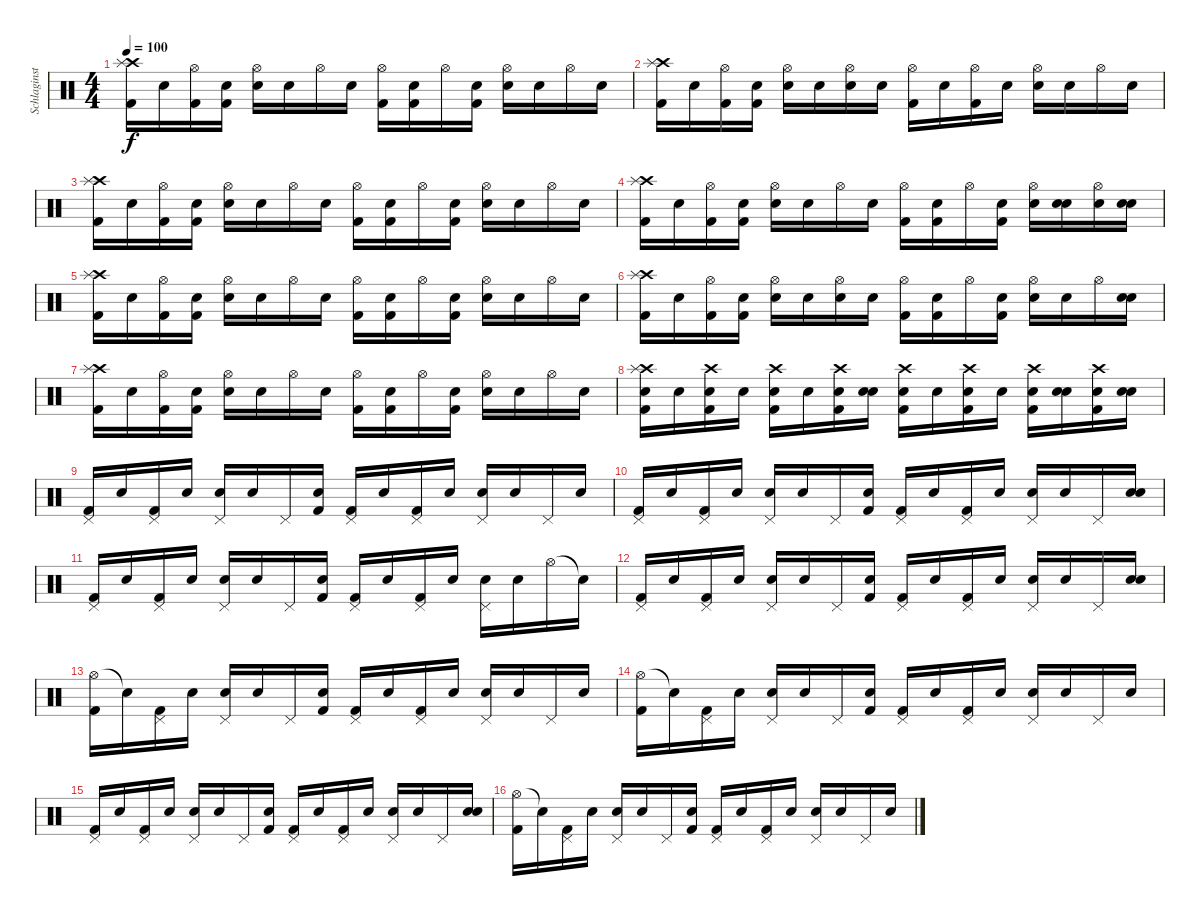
\track ("Schlaginstrumente - Auswahl" "Schlaginst") {instrument percussion}
\staff {score}
\articulation defaults
\ts (4 4)
\tempo 100
\clef neutral
\ks c
("Crash high (hit)" "Splash (hit)" "Kick (hit) 2").16{dy f} "Snare (hit)"{x}.16 ("Hi-Hat (open)" "Kick (hit) 2").16 ("Snare (hit)"{x} "Kick (hit) 2").16 ("Hi-Hat (open)" "Electric Snare (hit)").16 "Snare (hit)"{x}.16 "Hi-Hat (open)".16 "Snare (hit)"{x}.16 ("Hi-Hat (open)" "Kick (hit) 2").16 ("Snare (hit)"{x} "Kick (hit) 2").16 "Hi-Hat (open)".16 ("Snare (hit)"{x} "Kick (hit) 2").16 ("Hi-Hat (open)" "Electric Snare (hit)").16 "Snare (hit)"{x}.16 "Hi-Hat (open)".16 "Snare (hit)"{x}.16 |
("Crash high (hit)" "Splash (hit)" "Kick (hit) 2").16 "Snare (hit)"{x}.16 ("Hi-Hat (open)" "Kick (hit) 2").16 ("Snare (hit)"{x} "Kick (hit) 2").16 ("Hi-Hat (open)" "Electric Snare (hit)").16 "Snare (hit)"{x}.16 ("Hi-Hat (open)" "Electric Snare (hit)").16 "Snare (hit)"{x}.16 ("Hi-Hat (open)" "Kick (hit) 2").16 "Snare (hit)"{x}.16 ("Hi-Hat (open)" "Kick (hit) 2").16 "Snare (hit)"{x}.16 ("Hi-Hat (open)" "Electric Snare (hit)").16 "Snare (hit)"{x}.16 "Hi-Hat (open)".16 "Snare (hit)"{x}.16 |
("Crash high (hit)" "Splash (hit)" "Kick (hit) 2").16 "Snare (hit)"{x}.16 ("Hi-Hat (open)" "Kick (hit) 2").16 ("Snare (hit)"{x} "Kick (hit) 2").16 ("Hi-Hat (open)" "Electric Snare (hit)").16 "Snare (hit)"{x}.16 "Hi-Hat (open)".16 "Snare (hit)"{x}.16 ("Hi-Hat (open)" "Kick (hit) 2").16 ("Snare (hit)"{x} "Kick (hit) 2").16 "Hi-Hat (open)".16 ("Snare (hit)"{x} "Kick (hit) 2").16 ("Hi-Hat (open)" "Electric Snare (hit)").16 "Snare (hit)"{x}.16 "Hi-Hat (open)".16 "Snare (hit)"{x}.16 |
("Crash high (hit)" "Splash (hit)" "Kick (hit) 2").16 "Snare (hit)"{x}.16 ("Hi-Hat (open)" "Kick (hit) 2").16 ("Snare (hit)"{x} "Kick (hit) 2").16 ("Hi-Hat (open)" "Electric Snare (hit)").16 "Snare (hit)"{x}.16 "Hi-Hat (open)".16 "Snare (hit)"{x}.16 ("Hi-Hat (open)" "Kick (hit) 2").16 ("Snare (hit)"{x} "Kick (hit) 2").16 "Hi-Hat (open)".16 ("Snare (hit)"{x} "Kick (hit) 2").16 ("Hi-Hat (open)" "Electric Snare (hit)").16 ("Snare (hit)"{x} "Electric Snare (hit)").16 ("Hi-Hat (open)" "Electric Snare (hit)").16 ("Snare (hit)"{x} "Electric Snare (hit)").16 |
("Crash high (hit)" "Splash (hit)" "Kick (hit) 2").16 "Snare (hit)"{x}.16 ("Hi-Hat (open)" "Kick (hit) 2").16 ("Snare (hit)"{x} "Kick (hit) 2").16 ("Hi-Hat (open)" "Electric Snare (hit)").16 "Snare (hit)"{x}.16 "Hi-Hat (open)".16 "Snare (hit)"{x}.16 ("Hi-Hat (open)" "Kick (hit) 2").16 ("Snare (hit)"{x} "Kick (hit) 2").16 "Hi-Hat (open)".16 ("Snare (hit)"{x} "Kick (hit) 2").16 ("Hi-Hat (open)" "Electric Snare (hit)").16 "Snare (hit)"{x}.16 "Hi-Hat (open)".16 "Snare (hit)"{x}.16 |
("Crash high (hit)" "Splash (hit)" "Kick (hit) 2").16 "Snare (hit)"{x}.16 ("Hi-Hat (open)" "Kick (hit) 2").16 ("Snare (hit)"{x} "Kick (hit) 2").16 ("Hi-Hat (open)" "Electric Snare (hit)").16 "Snare (hit)"{x}.16 ("Hi-Hat (open)" "Electric Snare (hit)").16 "Snare (hit)"{x}.16 ("Hi-Hat (open)" "Kick (hit) 2").16 ("Snare (hit)"{x} "Kick (hit) 2").16 "Hi-Hat (open)".16 ("Snare (hit)"{x} "Kick (hit) 2").16 ("Hi-Hat (open)" "Electric Snare (hit)").16 "Snare (hit)"{x}.16 "Hi-Hat (open)".16 ("Snare (hit)"{x} "Electric Snare (hit)").16 |
("Crash high (hit)" "Splash (hit)" "Kick (hit) 2").16 "Snare (hit)"{x}.16 ("Hi-Hat (open)" "Kick (hit) 2").16 ("Snare (hit)"{x} "Kick (hit) 2").16 ("Hi-Hat (open)" "Electric Snare (hit)").16 "Snare (hit)"{x}.16 "Hi-Hat (open)".16 "Snare (hit)"{x}.16 ("Hi-Hat (open)" "Kick (hit) 2").16 ("Snare (hit)"{x} "Kick (hit) 2").16 "Hi-Hat (open)".16 ("Snare (hit)"{x} "Kick (hit) 2").16 ("Hi-Hat (open)" "Electric Snare (hit)").16 "Snare (hit)"{x}.16 "Hi-Hat (open)".16 "Snare (hit)"{x}.16 |
("Crash high (hit)" "Splash (hit)" "Electric Snare (hit)" "Kick (hit) 2").16 "Snare (hit)"{x}.16 ("Crash high (hit)" "Electric Snare (hit)" "Kick (hit) 2").16 "Snare (hit)"{x}.16 ("Crash high (hit)" "Electric Snare (hit)" "Kick (hit) 2").16 "Snare (hit)"{x}.16 ("Crash high (hit)" "Electric Snare (hit)" "Kick (hit) 2").16 ("Snare (hit)"{x} "Electric Snare (hit)").16 ("Crash high (hit)" "Electric Snare (hit)" "Kick (hit) 2").16 "Snare (hit)"{x}.16 ("Crash high (hit)" "Electric Snare (hit)" "Kick (hit) 2").16 "Snare (hit)"{x}.16 ("Crash high (hit)" "Electric Snare (hit)" "Kick (hit) 2").16 ("Snare (hit)"{x} "Electric Snare (hit)").16 ("Crash high (hit)" "Electric Snare (hit)" "Kick (hit) 2").16 ("Snare (hit)"{x} "Electric Snare (hit)").16 |
("Pedal Hi-Hat (hit)" "Kick (hit) 2").16 "Snare (hit)"{x}.16 ("Pedal Hi-Hat (hit)" "Kick (hit) 2").16 "Snare (hit)"{x}.16 ("Pedal Hi-Hat (hit)" "Electric Snare (hit)").16 "Snare (hit)"{x}.16 "Pedal Hi-Hat (hit)".16 ("Snare (hit)"{x} "Kick (hit) 2").16 ("Pedal Hi-Hat (hit)" "Kick (hit) 2").16 "Snare (hit)"{x}.16 ("Pedal Hi-Hat (hit)" "Kick (hit) 2").16 "Snare (hit)"{x}.16 ("Pedal Hi-Hat (hit)" "Electric Snare (hit)").16 "Snare (hit)"{x}.16 "Pedal Hi-Hat (hit)".16 "Snare (hit)"{x}.16 |
("Pedal Hi-Hat (hit)" "Kick (hit) 2").16 "Snare (hit)"{x}.16 ("Pedal Hi-Hat (hit)" "Kick (hit) 2").16 "Snare (hit)"{x}.16 ("Pedal Hi-Hat (hit)" "Electric Snare (hit)").16 "Snare (hit)"{x}.16 "Pedal Hi-Hat (hit)".16 ("Snare (hit)"{x} "Kick (hit) 2").16 ("Pedal Hi-Hat (hit)" "Kick (hit) 2").16 "Snare (hit)"{x}.16 ("Pedal Hi-Hat (hit)" "Kick (hit) 2").16 "Snare (hit)"{x}.16 ("Pedal Hi-Hat (hit)" "Electric Snare (hit)").16 "Snare (hit)"{x}.16 "Pedal Hi-Hat (hit)".16 ("Snare (hit)"{x} "Electric Snare (hit)").16 |
("Pedal Hi-Hat (hit)" "Kick (hit) 2").16 "Snare (hit)"{x}.16 ("Pedal Hi-Hat (hit)" "Kick (hit) 2").16 "Snare (hit)"{x}.16 ("Pedal Hi-Hat (hit)" "Electric Snare (hit)").16 "Snare (hit)"{x}.16 "Pedal Hi-Hat (hit)".16 ("Snare (hit)"{x} "Kick (hit) 2").16 ("Pedal Hi-Hat (hit)" "Kick (hit) 2").16 "Snare (hit)"{x}.16 ("Pedal Hi-Hat (hit)" "Kick (hit) 2").16 "Snare (hit)"{x}.16 ("Pedal Hi-Hat (hit)" "Electric Snare (hit)").16 "Snare (hit)"{x}.16 "Hi-Hat (open)".16 "Snare (hit)"{t}.16 |
("Pedal Hi-Hat (hit)" "Kick (hit) 2").16 "Snare (hit)"{x}.16 ("Pedal Hi-Hat (hit)" "Kick (hit) 2").16 "Snare (hit)"{x}.16 ("Pedal Hi-Hat (hit)" "Electric Snare (hit)").16 "Snare (hit)"{x}.16 "Pedal Hi-Hat (hit)".16 ("Snare (hit)"{x} "Kick (hit) 2").16 ("Pedal Hi-Hat (hit)" "Kick (hit) 2").16 "Snare (hit)"{x}.16 ("Pedal Hi-Hat (hit)" "Kick (hit) 2").16 "Snare (hit)"{x}.16 ("Pedal Hi-Hat (hit)" "Electric Snare (hit)").16 "Snare (hit)"{x}.16 "Pedal Hi-Hat (hit)".16 ("Snare (hit)"{x} "Electric Snare (hit)").16 |
("Hi-Hat (open)" "Kick (hit) 2").16 "Snare (hit)"{t}.16 ("Pedal Hi-Hat (hit)" "Kick (hit) 2").16 "Snare (hit)"{x}.16 ("Pedal Hi-Hat (hit)" "Electric Snare (hit)").16 "Snare (hit)"{x}.16 "Pedal Hi-Hat (hit)".16 ("Snare (hit)"{x} "Kick (hit) 2").16 ("Pedal Hi-Hat (hit)" "Kick (hit) 2").16 "Snare (hit)"{x}.16 ("Pedal Hi-Hat (hit)" "Kick (hit) 2").16 "Snare (hit)"{x}.16 ("Pedal Hi-Hat (hit)" "Electric Snare (hit)").16 "Snare (hit)"{x}.16 "Pedal Hi-Hat (hit)".16 "Snare (hit)"{x}.16 |
("Hi-Hat (open)" "Kick (hit) 2").16 "Snare (hit)"{t}.16 ("Pedal Hi-Hat (hit)" "Kick (hit) 2").16 "Snare (hit)"{x}.16 ("Pedal Hi-Hat (hit)" "Electric Snare (hit)").16 "Snare (hit)"{x}.16 "Pedal Hi-Hat (hit)".16 ("Snare (hit)"{x} "Kick (hit) 2").16 ("Pedal Hi-Hat (hit)" "Kick (hit) 2").16 "Snare (hit)"{x}.16 ("Pedal Hi-Hat (hit)" "Kick (hit) 2").16 "Snare (hit)"{x}.16 ("Pedal Hi-Hat (hit)" "Electric Snare (hit)").16 "Snare (hit)"{x}.16 "Pedal Hi-Hat (hit)".16 "Snare (hit)"{x}.16 |
("Pedal Hi-Hat (hit)" "Kick (hit) 2").16 "Snare (hit)"{x}.16 ("Pedal Hi-Hat (hit)" "Kick (hit) 2").16 "Snare (hit)"{x}.16 ("Pedal Hi-Hat (hit)" "Electric Snare (hit)").16 "Snare (hit)"{x}.16 "Pedal Hi-Hat (hit)".16 ("Snare (hit)"{x} "Kick (hit) 2").16 ("Pedal Hi-Hat (hit)" "Kick (hit) 2").16 "Snare (hit)"{x}.16 ("Pedal Hi-Hat (hit)" "Kick (hit) 2").16 "Snare (hit)"{x}.16 ("Pedal Hi-Hat (hit)" "Electric Snare (hit)").16 "Snare (hit)"{x}.16 "Pedal Hi-Hat (hit)".16 ("Snare (hit)"{x} "Electric Snare (hit)").16 |
("Hi-Hat (open)" "Kick (hit) 2").16 "Snare (hit)"{t}.16 ("Pedal Hi-Hat (hit)" "Kick (hit) 2").16 "Snare (hit)"{x}.16 ("Pedal Hi-Hat (hit)" "Electric Snare (hit)").16 "Snare (hit)"{x}.16 "Pedal Hi-Hat (hit)".16 ("Snare (hit)"{x} "Kick (hit) 2").16 ("Pedal Hi-Hat (hit)" "Kick (hit) 2").16 "Snare (hit)"{x}.16 ("Pedal Hi-Hat (hit)" "Kick (hit) 2").16 "Snare (hit)"{x}.16 ("Pedal Hi-Hat (hit)" "Electric Snare (hit)").16 "Snare (hit)"{x}.16 "Pedal Hi-Hat (hit)".16 "Snare (hit)"{x}.16
